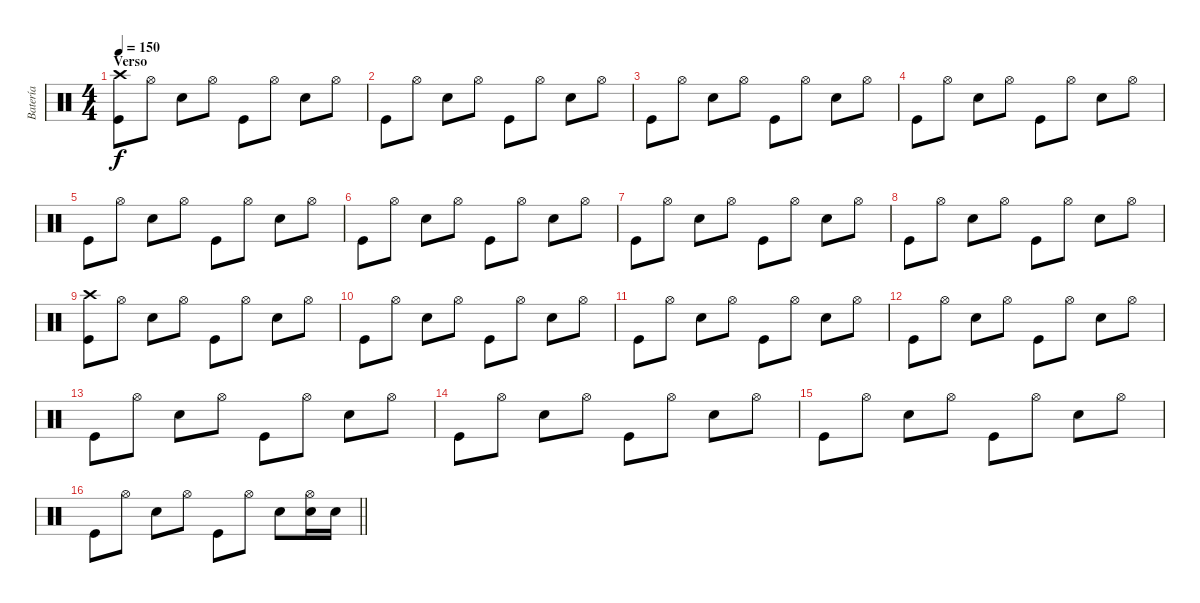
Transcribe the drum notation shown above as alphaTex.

\track ("Batería" "Batería") {instrument percussion}
\staff {score}
\articulation defaults
\ts (4 4)
\section ("" "Verso")
\tempo 150
\clef neutral
\ks c
("Crash high (hit)" "Kick (hit)").8{dy f} "Hi-Hat (open)".8 "Snare (hit) 2".8 "Hi-Hat (open)".8 "Kick (hit)".8 "Hi-Hat (open)".8 "Snare (hit) 2".8 "Hi-Hat (open)".8 |
"Kick (hit)".8 "Hi-Hat (open)".8 "Snare (hit) 2".8 "Hi-Hat (open)".8 "Kick (hit)".8 "Hi-Hat (open)".8 "Snare (hit) 2".8 "Hi-Hat (open)".8 |
"Kick (hit)".8 "Hi-Hat (open)".8 "Snare (hit) 2".8 "Hi-Hat (open)".8 "Kick (hit)".8 "Hi-Hat (open)".8 "Snare (hit) 2".8 "Hi-Hat (open)".8 |
"Kick (hit)".8 "Hi-Hat (open)".8 "Snare (hit) 2".8 "Hi-Hat (open)".8 "Kick (hit)".8 "Hi-Hat (open)".8 "Snare (hit) 2".8 "Hi-Hat (open)".8 |
"Kick (hit)".8 "Hi-Hat (open)".8 "Snare (hit) 2".8 "Hi-Hat (open)".8 "Kick (hit)".8 "Hi-Hat (open)".8 "Snare (hit) 2".8 "Hi-Hat (open)".8 |
"Kick (hit)".8 "Hi-Hat (open)".8 "Snare (hit) 2".8 "Hi-Hat (open)".8 "Kick (hit)".8 "Hi-Hat (open)".8 "Snare (hit) 2".8 "Hi-Hat (open)".8 |
"Kick (hit)".8 "Hi-Hat (open)".8 "Snare (hit) 2".8 "Hi-Hat (open)".8 "Kick (hit)".8 "Hi-Hat (open)".8 "Snare (hit) 2".8 "Hi-Hat (open)".8 |
"Kick (hit)".8 "Hi-Hat (open)".8 "Snare (hit) 2".8 "Hi-Hat (open)".8 "Kick (hit)".8 "Hi-Hat (open)".8 "Snare (hit) 2".8 "Hi-Hat (open)".8 |
("Crash high (hit)" "Kick (hit)").8 "Hi-Hat (open)".8 "Snare (hit) 2".8 "Hi-Hat (open)".8 "Kick (hit)".8 "Hi-Hat (open)".8 "Snare (hit) 2".8 "Hi-Hat (open)".8 |
"Kick (hit)".8 "Hi-Hat (open)".8 "Snare (hit) 2".8 "Hi-Hat (open)".8 "Kick (hit)".8 "Hi-Hat (open)".8 "Snare (hit) 2".8 "Hi-Hat (open)".8 |
"Kick (hit)".8 "Hi-Hat (open)".8 "Snare (hit) 2".8 "Hi-Hat (open)".8 "Kick (hit)".8 "Hi-Hat (open)".8 "Snare (hit) 2".8 "Hi-Hat (open)".8 |
"Kick (hit)".8 "Hi-Hat (open)".8 "Snare (hit) 2".8 "Hi-Hat (open)".8 "Kick (hit)".8 "Hi-Hat (open)".8 "Snare (hit) 2".8 "Hi-Hat (open)".8 |
"Kick (hit)".8 "Hi-Hat (open)".8 "Snare (hit) 2".8 "Hi-Hat (open)".8 "Kick (hit)".8 "Hi-Hat (open)".8 "Snare (hit) 2".8 "Hi-Hat (open)".8 |
"Kick (hit)".8 "Hi-Hat (open)".8 "Snare (hit) 2".8 "Hi-Hat (open)".8 "Kick (hit)".8 "Hi-Hat (open)".8 "Snare (hit) 2".8 "Hi-Hat (open)".8 |
"Kick (hit)".8 "Hi-Hat (open)".8 "Snare (hit) 2".8 "Hi-Hat (open)".8 "Kick (hit)".8 "Hi-Hat (open)".8 "Snare (hit) 2".8 "Hi-Hat (open)".8 |
\barLineRight lightlight "Kick (hit)".8 "Hi-Hat (open)".8 "Snare (hit) 2".8 "Hi-Hat (open)".8 "Kick (hit)".8 "Hi-Hat (open)".8 "Snare (hit) 2".8
("Hi-Hat (open)" "Snare (hit) 2").16 "Snare (hit) 2".16
